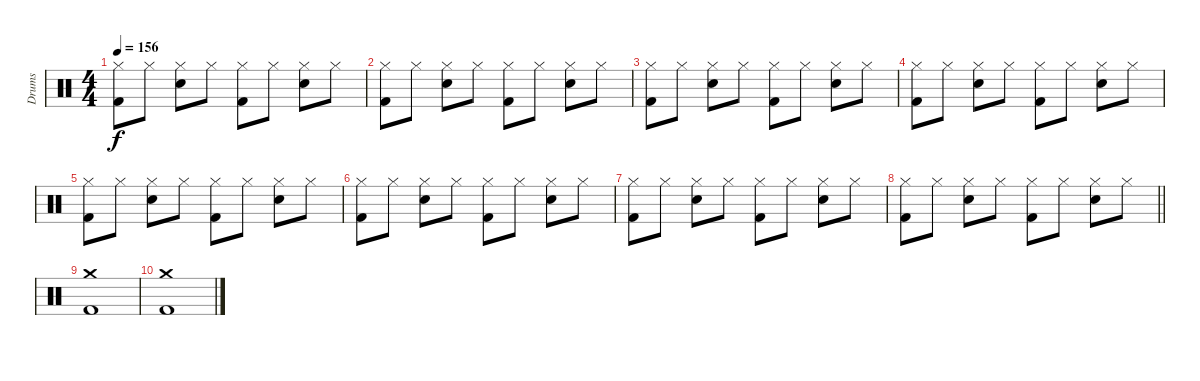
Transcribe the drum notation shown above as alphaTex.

\track ("Drums" "Drums") {instrument percussion}
\staff {score}
\articulation defaults
\ts (4 4)
\tempo 156
\clef neutral
\ks c
("Hi-Hat (closed)" "Kick (hit) 2").8{dy f} "Hi-Hat (closed)".8 ("Hi-Hat (closed)" "Electric Snare (hit)").8 "Hi-Hat (closed)".8 ("Hi-Hat (closed)" "Kick (hit) 2").8 "Hi-Hat (closed)".8 ("Hi-Hat (closed)" "Electric Snare (hit)").8 "Hi-Hat (closed)".8 |
("Hi-Hat (closed)" "Kick (hit) 2").8 "Hi-Hat (closed)".8 ("Hi-Hat (closed)" "Electric Snare (hit)").8 "Hi-Hat (closed)".8 ("Hi-Hat (closed)" "Kick (hit) 2").8 "Hi-Hat (closed)".8 ("Hi-Hat (closed)" "Electric Snare (hit)").8 "Hi-Hat (closed)".8 |
("Hi-Hat (closed)" "Kick (hit) 2").8 "Hi-Hat (closed)".8 ("Hi-Hat (closed)" "Electric Snare (hit)").8 "Hi-Hat (closed)".8 ("Hi-Hat (closed)" "Kick (hit) 2").8 "Hi-Hat (closed)".8 ("Hi-Hat (closed)" "Electric Snare (hit)").8 "Hi-Hat (closed)".8 |
("Hi-Hat (closed)" "Kick (hit) 2").8 "Hi-Hat (closed)".8 ("Hi-Hat (closed)" "Electric Snare (hit)").8 "Hi-Hat (closed)".8 ("Hi-Hat (closed)" "Kick (hit) 2").8 "Hi-Hat (closed)".8 ("Hi-Hat (closed)" "Electric Snare (hit)").8 "Hi-Hat (closed)".8 |
("Hi-Hat (closed)" "Kick (hit) 2").8 "Hi-Hat (closed)".8 ("Hi-Hat (closed)" "Electric Snare (hit)").8 "Hi-Hat (closed)".8 ("Hi-Hat (closed)" "Kick (hit) 2").8 "Hi-Hat (closed)".8 ("Hi-Hat (closed)" "Electric Snare (hit)").8 "Hi-Hat (closed)".8 |
("Hi-Hat (closed)" "Kick (hit) 2").8 "Hi-Hat (closed)".8 ("Hi-Hat (closed)" "Electric Snare (hit)").8 "Hi-Hat (closed)".8 ("Hi-Hat (closed)" "Kick (hit) 2").8 "Hi-Hat (closed)".8 ("Hi-Hat (closed)" "Electric Snare (hit)").8 "Hi-Hat (closed)".8 |
("Hi-Hat (closed)" "Kick (hit) 2").8 "Hi-Hat (closed)".8 ("Hi-Hat (closed)" "Electric Snare (hit)").8 "Hi-Hat (closed)".8 ("Hi-Hat (closed)" "Kick (hit) 2").8 "Hi-Hat (closed)".8 ("Hi-Hat (closed)" "Electric Snare (hit)").8 "Hi-Hat (closed)".8 |
\barLineRight lightlight
("Hi-Hat (closed)" "Kick (hit) 2").8 "Hi-Hat (closed)".8 ("Hi-Hat (closed)" "Electric Snare (hit)").8 "Hi-Hat (closed)".8 ("Hi-Hat (closed)" "Kick (hit) 2").8 "Hi-Hat (closed)".8 ("Hi-Hat (closed)" "Electric Snare (hit)").8 "Hi-Hat (closed)".8 |
("Crash medium (hit)" "Kick (hit) 2").1 |
("Crash medium (hit)" "Kick (hit) 2").1
